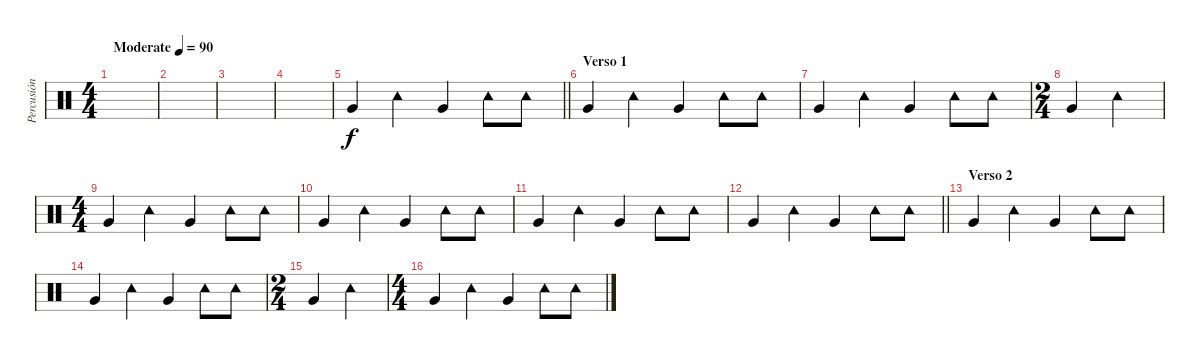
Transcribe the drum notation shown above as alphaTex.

\track ("Percusión" "Percusión") {instrument percussion}
\staff {score}
\articulation defaults
\ts (4 4)
\tempo (90 "Moderate")
\clef neutral
\ks c
|
|
|
|
\barLineRight lightlight "Very Low Tom (hit)".4 "Tambourine (hit)".4 "Very Low Tom (hit)".4 "Tambourine (hit)".8 "Tambourine (hit)".8
|
\section ("" "Verso 1")
"Very Low Tom (hit)".4 "Tambourine (hit)".4 "Very Low Tom (hit)".4 "Tambourine (hit)".8 "Tambourine (hit)".8 |
"Very Low Tom (hit)".4 "Tambourine (hit)".4 "Very Low Tom (hit)".4 "Tambourine (hit)".8 "Tambourine (hit)".8 |
\ts (2 4)
"Very Low Tom (hit)".4 "Tambourine (hit)".4 |
\ts (4 4)
"Very Low Tom (hit)".4 "Tambourine (hit)".4 "Very Low Tom (hit)".4 "Tambourine (hit)".8 "Tambourine (hit)".8 |
"Very Low Tom (hit)".4 "Tambourine (hit)".4 "Very Low Tom (hit)".4 "Tambourine (hit)".8 "Tambourine (hit)".8 |
"Very Low Tom (hit)".4 "Tambourine (hit)".4 "Very Low Tom (hit)".4 "Tambourine (hit)".8 "Tambourine (hit)".8 |
\barLineRight lightlight "Very Low Tom (hit)".4 "Tambourine (hit)".4 "Very Low Tom (hit)".4 "Tambourine (hit)".8 "Tambourine (hit)".8
|
\section ("" "Verso 2")
"Very Low Tom (hit)".4 "Tambourine (hit)".4 "Very Low Tom (hit)".4 "Tambourine (hit)".8 "Tambourine (hit)".8 |
"Very Low Tom (hit)".4 "Tambourine (hit)".4 "Very Low Tom (hit)".4 "Tambourine (hit)".8 "Tambourine (hit)".8 |
\ts (2 4)
"Very Low Tom (hit)".4 "Tambourine (hit)".4 |
\ts (4 4)
"Very Low Tom (hit)".4 "Tambourine (hit)".4 "Very Low Tom (hit)".4 "Tambourine (hit)".8 "Tambourine (hit)".8
